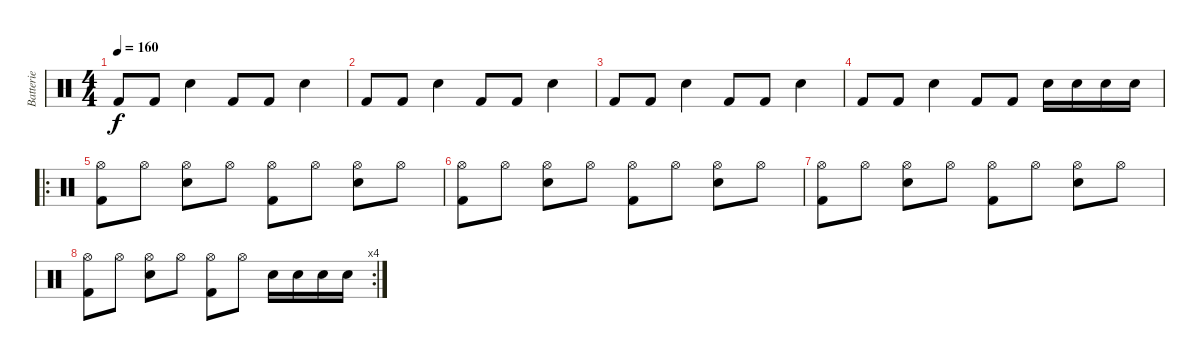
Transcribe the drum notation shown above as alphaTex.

\track ("Batterie" "Batterie") {instrument percussion}
\staff {score}
\articulation defaults
\ts (4 4)
\tempo 160
\clef neutral
\ks c "Kick (hit) 2".8{dy f} "Kick (hit) 2".8 "Electric Snare (hit)".4 "Kick (hit) 2".8 "Kick (hit) 2".8 "Electric Snare (hit)".4
|
"Kick (hit) 2".8 "Kick (hit) 2".8 "Electric Snare (hit)".4 "Kick (hit) 2".8 "Kick (hit) 2".8 "Electric Snare (hit)".4 |
"Kick (hit) 2".8 "Kick (hit) 2".8 "Electric Snare (hit)".4 "Kick (hit) 2".8 "Kick (hit) 2".8 "Electric Snare (hit)".4 |
"Kick (hit) 2".8 "Kick (hit) 2".8 "Electric Snare (hit)".4 "Kick (hit) 2".8 "Kick (hit) 2".8 "Electric Snare (hit)".16 "Electric Snare (hit)".16 "Electric Snare (hit)".16 "Electric Snare (hit)".16 |
\ro
("Kick (hit) 2" "Hi-Hat (open)").8 "Hi-Hat (open)".8 ("Electric Snare (hit)" "Hi-Hat (open)").8 "Hi-Hat (open)".8 ("Kick (hit) 2" "Hi-Hat (open)").8 "Hi-Hat (open)".8 ("Electric Snare (hit)" "Hi-Hat (open)").8 "Hi-Hat (open)".8 |
("Kick (hit) 2" "Hi-Hat (open)").8 "Hi-Hat (open)".8 ("Electric Snare (hit)" "Hi-Hat (open)").8 "Hi-Hat (open)".8 ("Kick (hit) 2" "Hi-Hat (open)").8 "Hi-Hat (open)".8 ("Electric Snare (hit)" "Hi-Hat (open)").8 "Hi-Hat (open)".8 |
("Kick (hit) 2" "Hi-Hat (open)").8 "Hi-Hat (open)".8 ("Electric Snare (hit)" "Hi-Hat (open)").8 "Hi-Hat (open)".8 ("Kick (hit) 2" "Hi-Hat (open)").8 "Hi-Hat (open)".8 ("Electric Snare (hit)" "Hi-Hat (open)").8 "Hi-Hat (open)".8 |
\rc 4
("Kick (hit) 2" "Hi-Hat (open)").8 "Hi-Hat (open)".8 ("Electric Snare (hit)" "Hi-Hat (open)").8 "Hi-Hat (open)".8 ("Kick (hit) 2" "Hi-Hat (open)").8 "Hi-Hat (open)".8 "Electric Snare (hit)".16 "Electric Snare (hit)".16 "Electric Snare (hit)".16 "Electric Snare (hit)".16
